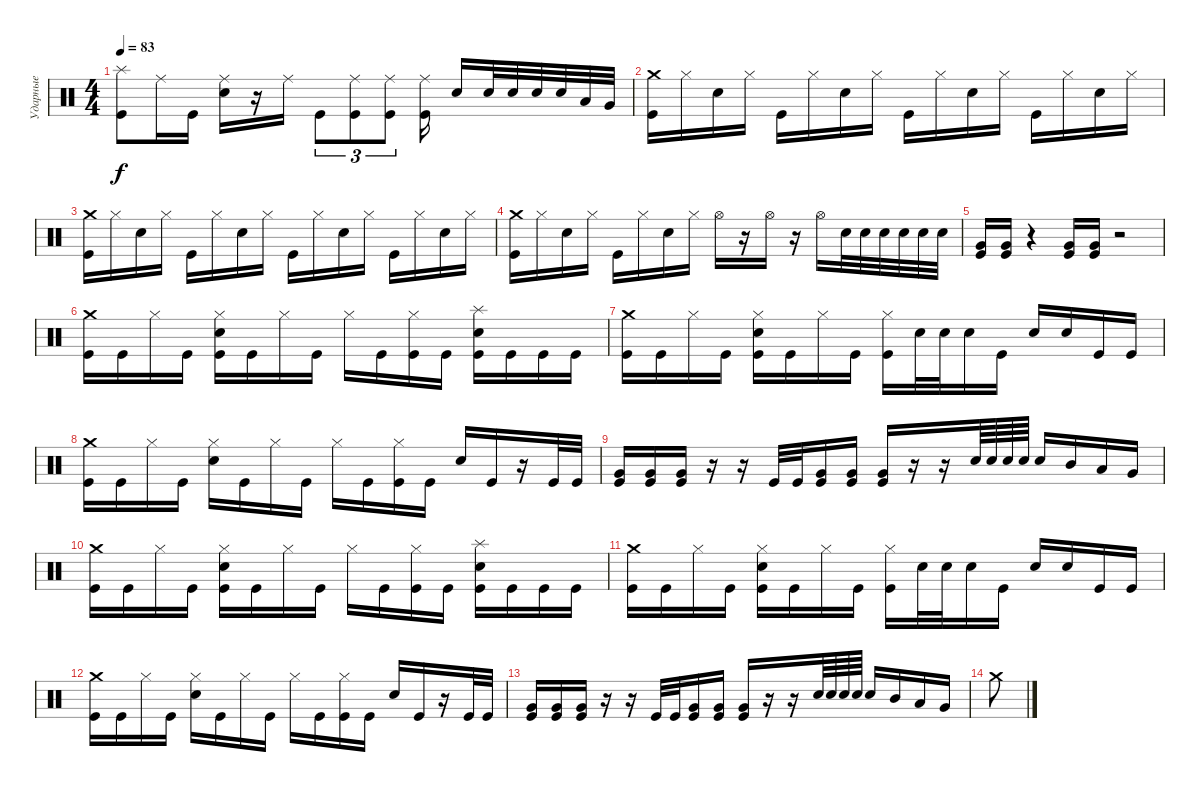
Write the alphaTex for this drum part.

\track ("Ударные" "Ударные") {instrument percussion}
\staff {score}
\articulation defaults
\ts (4 4)
\tempo 83
\clef neutral
\ks c
("Splash (hit)" "Kick (hit)").8{dy f} "Ride (middle)".16 "Kick (hit)".16 ("Ride (middle)" "Snare (hit) 2").16 r.16 "Ride (middle)".16 "Kick (hit)".8{tu (3 2)} ("Ride (middle)" "Kick (hit)").8{tu (3 2)} ("Ride (middle)" "Kick (hit)").8{tu (3 2)} ("Ride (middle)" "Kick (hit)").16 "Snare (hit) 2".16 "Snare (hit) 2".32 "Snare (hit) 2".32 "Snare (hit) 2".32 "Snare (hit) 2".32 "Low Tom (hit)".32 "Very Low Tom (hit)".32 |
("Crash medium (hit)" "Kick (hit)").16 "Hi-Hat (closed)".16 "Snare (hit) 2".16 "Hi-Hat (closed)".16 "Kick (hit)".16 "Hi-Hat (closed)".16 "Snare (hit) 2".16 "Hi-Hat (closed)".16 "Kick (hit)".16 "Hi-Hat (closed)".16 "Snare (hit) 2".16 "Hi-Hat (closed)".16 "Kick (hit)".16 "Hi-Hat (closed)".16 "Snare (hit) 2".16 "Hi-Hat (closed)".16 |
("Crash medium (hit)" "Kick (hit)").16 "Hi-Hat (closed)".16 "Snare (hit) 2".16 "Hi-Hat (closed)".16 "Kick (hit)".16 "Hi-Hat (closed)".16 "Snare (hit) 2".16 "Hi-Hat (closed)".16 "Kick (hit)".16 "Hi-Hat (closed)".16 "Snare (hit) 2".16 "Hi-Hat (closed)".16 "Kick (hit)".16 "Hi-Hat (closed)".16 "Snare (hit) 2".16 "Hi-Hat (closed)".16 |
("Crash medium (hit)" "Kick (hit)").16 "Hi-Hat (closed)".16 "Snare (hit) 2".16 "Hi-Hat (closed)".16 "Kick (hit)".16 "Hi-Hat (closed)".16 "Snare (hit) 2".16 "Hi-Hat (closed)".16 "Hi-Hat (open)".16 r.16 "Hi-Hat (open)".16 r.16 "Hi-Hat (open)".16 "Snare (hit) 2".32 "Snare (hit) 2".32 "Snare (hit) 2".32 "Snare (hit) 2".32 "Snare (hit) 2".32 "Snare (hit) 2".32 |
("Very Low Tom (hit)" "Kick (hit)").16 ("Very Low Tom (hit)" "Kick (hit)").16 r.4 ("Very Low Tom (hit)" "Kick (hit)").16 ("Very Low Tom (hit)" "Kick (hit)").16 r.2 |
("Crash medium (hit)" "Kick (hit)").16 "Kick (hit)".16 "Hi-Hat (closed)".16 "Kick (hit)".16 ("Hi-Hat (closed)" "Snare (hit) 2" "Kick (hit)").16 "Kick (hit)".16 "Hi-Hat (closed)".16 "Kick (hit)".16 "Hi-Hat (closed)".16 "Kick (hit)".16 ("Hi-Hat (closed)" "Kick (hit)").16 "Kick (hit)".16 ("Splash (hit)" "Snare (hit) 2" "Kick (hit)").16 "Kick (hit)".16 "Kick (hit)".16 "Kick (hit)".16 |
("Crash medium (hit)" "Kick (hit)").16 "Kick (hit)".16 "Hi-Hat (closed)".16 "Kick (hit)".16 ("Hi-Hat (closed)" "Snare (hit) 2" "Kick (hit)").16 "Kick (hit)".16 "Hi-Hat (closed)".16 "Kick (hit)".16 ("Hi-Hat (closed)" "Kick (hit)").16 "Snare (hit) 2".32 "Snare (hit) 2".32 "Snare (hit) 2".16 "Kick (hit)".16 "Snare (hit) 2".16 "Snare (hit) 2".16 "Kick (hit)".16 "Kick (hit)".16 |
("Crash medium (hit)" "Kick (hit)").16 "Kick (hit)".16 "Hi-Hat (closed)".16 "Kick (hit)".16 ("Hi-Hat (closed)" "Snare (hit) 2").16 "Kick (hit)".16 "Hi-Hat (closed)".16 "Kick (hit)".16 "Hi-Hat (closed)".16 "Kick (hit)".16 ("Hi-Hat (closed)" "Kick (hit)").16 "Kick (hit)".16 "Snare (hit) 2".16 "Kick (hit)".16 r.16 "Kick (hit)".32 "Kick (hit)".32 |
("Very Low Tom (hit)" "Kick (hit)").16 ("Very Low Tom (hit)" "Kick (hit)").16 ("Very Low Tom (hit)" "Kick (hit)").16 r.16 r.16 "Kick (hit)".32 "Kick (hit)".32 ("Very Low Tom (hit)" "Kick (hit)").16 ("Very Low Tom (hit)" "Kick (hit)").16 ("Very Low Tom (hit)" "Kick (hit)").16 r.16 r.16 "Snare (hit) 2".64 "Snare (hit) 2".64 "Snare (hit) 2".64 "Snare (hit) 2".64 "Snare (hit) 2".16 "Mid Tom (hit)".16 "Low Tom (hit)".16 "Very Low Tom (hit)".16 |
("Crash medium (hit)" "Kick (hit)").16 "Kick (hit)".16 "Hi-Hat (closed)".16 "Kick (hit)".16 ("Hi-Hat (closed)" "Snare (hit) 2" "Kick (hit)").16 "Kick (hit)".16 "Hi-Hat (closed)".16 "Kick (hit)".16 "Hi-Hat (closed)".16 "Kick (hit)".16 ("Hi-Hat (closed)" "Kick (hit)").16 "Kick (hit)".16 ("Splash (hit)" "Snare (hit) 2" "Kick (hit)").16 "Kick (hit)".16 "Kick (hit)".16 "Kick (hit)".16 |
("Crash medium (hit)" "Kick (hit)").16 "Kick (hit)".16 "Hi-Hat (closed)".16 "Kick (hit)".16 ("Hi-Hat (closed)" "Snare (hit) 2" "Kick (hit)").16 "Kick (hit)".16 "Hi-Hat (closed)".16 "Kick (hit)".16 ("Hi-Hat (closed)" "Kick (hit)").16 "Snare (hit) 2".32 "Snare (hit) 2".32 "Snare (hit) 2".16 "Kick (hit)".16 "Snare (hit) 2".16 "Snare (hit) 2".16 "Kick (hit)".16 "Kick (hit)".16 |
("Crash medium (hit)" "Kick (hit)").16 "Kick (hit)".16 "Hi-Hat (closed)".16 "Kick (hit)".16 ("Hi-Hat (closed)" "Snare (hit) 2").16 "Kick (hit)".16 "Hi-Hat (closed)".16 "Kick (hit)".16 "Hi-Hat (closed)".16 "Kick (hit)".16 ("Hi-Hat (closed)" "Kick (hit)").16 "Kick (hit)".16 "Snare (hit) 2".16 "Kick (hit)".16 r.16 "Kick (hit)".32 "Kick (hit)".32 |
("Very Low Tom (hit)" "Kick (hit)").16 ("Very Low Tom (hit)" "Kick (hit)").16 ("Very Low Tom (hit)" "Kick (hit)").16 r.16 r.16 "Kick (hit)".32 "Kick (hit)".32 ("Very Low Tom (hit)" "Kick (hit)").16 ("Very Low Tom (hit)" "Kick (hit)").16 ("Very Low Tom (hit)" "Kick (hit)").16 r.16 r.16 "Snare (hit) 2".64 "Snare (hit) 2".64 "Snare (hit) 2".64 "Snare (hit) 2".64 "Snare (hit) 2".16 "Mid Tom (hit)".16 "Low Tom (hit)".16 "Very Low Tom (hit)".16 |
"Crash medium (hit)".8
